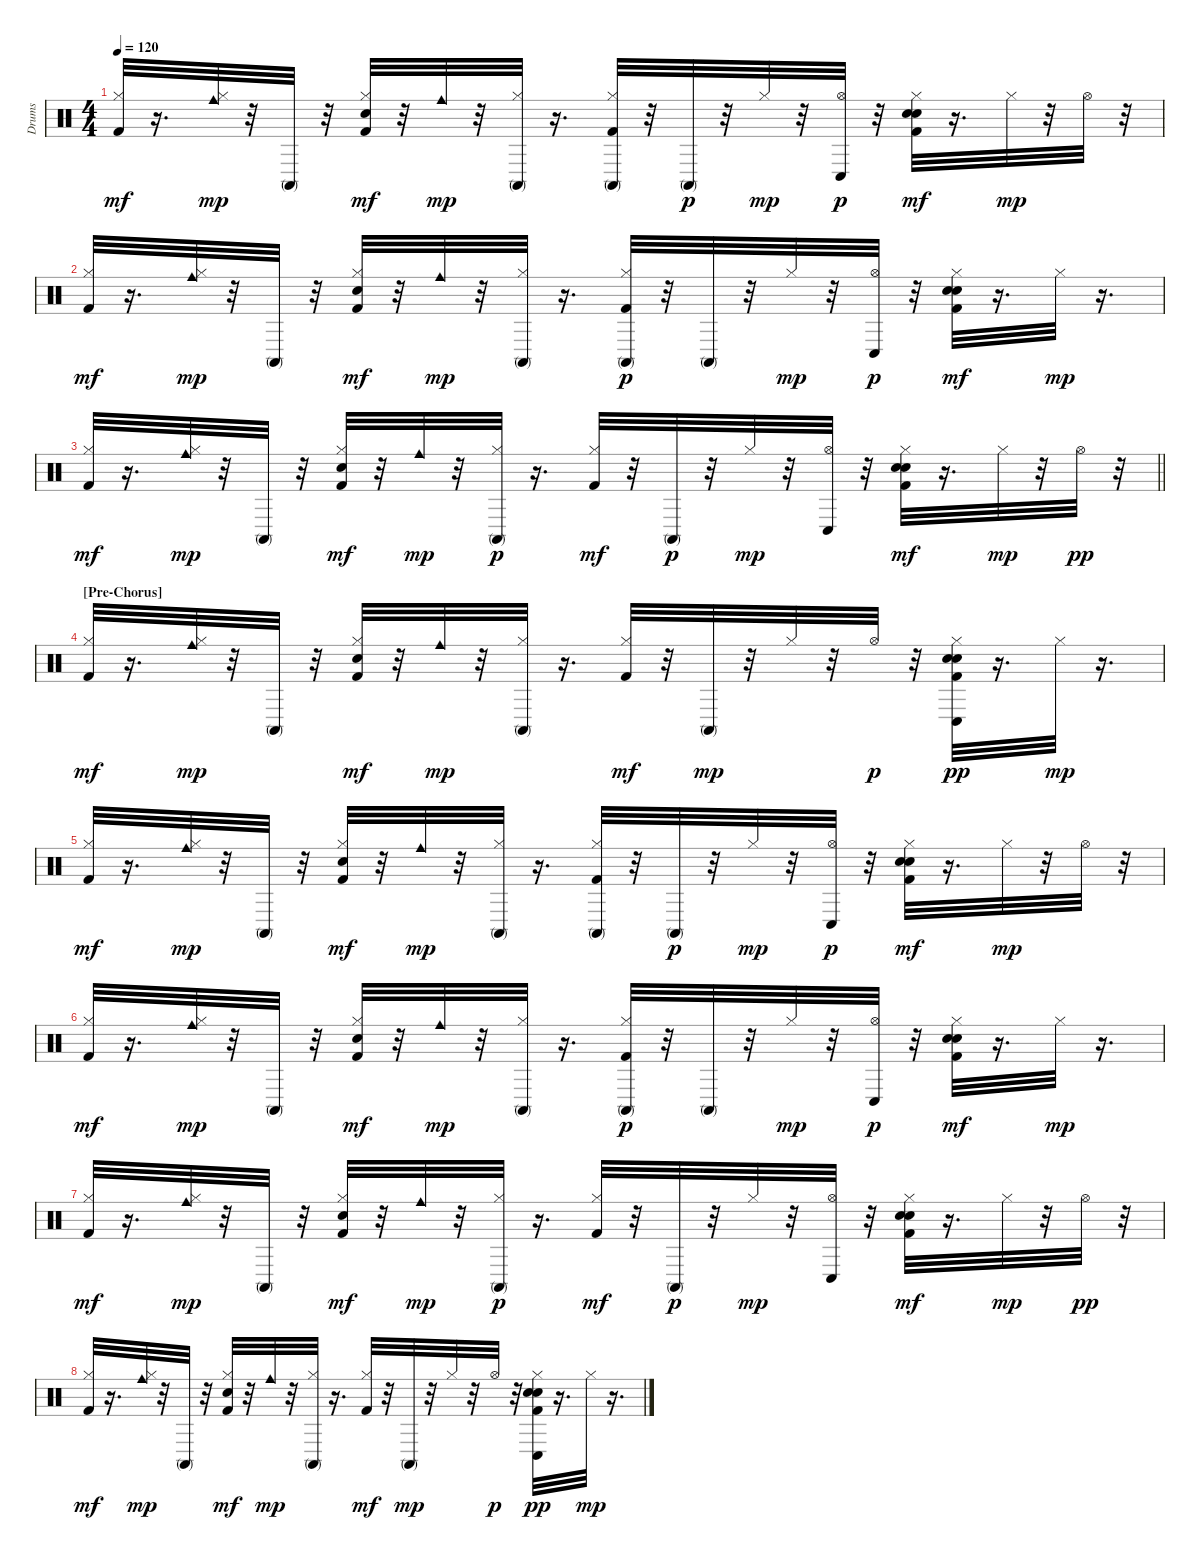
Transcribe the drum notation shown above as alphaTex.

\track ("Drums" "Drums") {instrument percussion}
\staff {score}
\articulation defaults
\ts (4 4)
\tempo 120
\clef neutral
\ks c
("Hi-Hat (closed)" "Kick (hit) 2").32{dy mf} r.16{d} ("Hi-Hat (closed)" "Cowbell medium (hit)").32{dy mp} r.32 "Conga high (mute)".32 r.32 ("Hi-Hat (closed)" "Electric Snare (hit)" "Kick (hit) 2").32{dy mf} r.32 "Cowbell medium (hit)".32{dy mp} r.32 ("Hi-Hat (closed)" "Conga high (mute)").32 r.16{d} ("Hi-Hat (closed)" "Kick (hit) 2" "Conga high (mute)").32 r.32 "Conga high (mute)".32{dy p} r.32 "Hi-Hat (closed)".32{dy mp} r.32 ("Hi-Hat (open)" "Conga low (hit)").32{dy p} r.32 ("Kick (hit) 2" "Hi-Hat (closed)" "Electric Snare (hit)" "Hand Clap (hit)").32{dy mf} r.16{d} "Hi-Hat (closed)".32{dy mp} r.32 "Hi-Hat (open)".32 r.32 |
("Hi-Hat (closed)" "Kick (hit) 2").32{dy mf} r.16{d} ("Hi-Hat (closed)" "Cowbell medium (hit)").32{dy mp} r.32 "Conga high (mute)".32 r.32 ("Hi-Hat (closed)" "Electric Snare (hit)" "Kick (hit) 2").32{dy mf} r.32 "Cowbell medium (hit)".32{dy mp} r.32 ("Hi-Hat (closed)" "Conga high (mute)").32 r.16{d} ("Kick (hit) 2" "Hi-Hat (closed)" "Conga high (mute)").32{dy p} r.32 "Conga high (mute)".32 r.32 "Hi-Hat (closed)".32{dy mp} r.32 ("Hi-Hat (open)" "Conga low (hit)").32{dy p} r.32 ("Hi-Hat (closed)" "Hand Clap (hit)" "Electric Snare (hit)" "Kick (hit) 2").32{dy mf} r.16{d} "Hi-Hat (closed)".32{dy mp} r.16{d} |
\barLineRight lightlight
("Hi-Hat (closed)" "Kick (hit) 2").32{dy mf} r.16{d} ("Hi-Hat (closed)" "Cowbell medium (hit)").32{dy mp} r.32 "Conga high (mute)".32 r.32 ("Hi-Hat (closed)" "Electric Snare (hit)" "Kick (hit) 2").32{dy mf} r.32 "Cowbell medium (hit)".32{dy mp} r.32 ("Hi-Hat (closed)" "Conga high (mute)").32{dy p} r.16{d} ("Hi-Hat (closed)" "Kick (hit) 2").32{dy mf} r.32 "Conga high (mute)".32{dy p} r.32 "Hi-Hat (closed)".32{dy mp} r.32 ("Hi-Hat (open)" "Conga low (hit)").32 r.32 ("Kick (hit) 2" "Hi-Hat (closed)" "Electric Snare (hit)" "Hand Clap (hit)").32{dy mf} r.16{d} "Hi-Hat (closed)".32{dy mp} r.32 "Hi-Hat (open)".32{dy pp} r.32 |
\section ("" "[Pre-Chorus]")
("Hi-Hat (closed)" "Kick (hit) 2").32{dy mf} r.16{d} ("Hi-Hat (closed)" "Cowbell medium (hit)").32{dy mp} r.32 "Conga high (mute)".32 r.32 ("Hi-Hat (closed)" "Electric Snare (hit)" "Kick (hit) 2").32{dy mf} r.32 "Cowbell medium (hit)".32{dy mp} r.32 ("Hi-Hat (closed)" "Conga high (mute)").32 r.16{d} ("Hi-Hat (closed)" "Kick (hit) 2").32{dy mf} r.32 "Conga high (mute)".32{dy mp} r.32 "Hi-Hat (closed)".32 r.32 "Hi-Hat (open)".32{dy p} r.32 ("Hi-Hat (closed)" "Kick (hit) 2" "Hand Clap (hit)" "Electric Snare (hit)" "Conga low (hit)").32{dy pp} r.16{d} "Hi-Hat (closed)".32{dy mp} r.16{d} |
("Hi-Hat (closed)" "Kick (hit) 2").32{dy mf} r.16{d} ("Hi-Hat (closed)" "Cowbell medium (hit)").32{dy mp} r.32 "Conga high (mute)".32 r.32 ("Hi-Hat (closed)" "Electric Snare (hit)" "Kick (hit) 2").32{dy mf} r.32 "Cowbell medium (hit)".32{dy mp} r.32 ("Hi-Hat (closed)" "Conga high (mute)").32 r.16{d} ("Hi-Hat (closed)" "Kick (hit) 2" "Conga high (mute)").32 r.32 "Conga high (mute)".32{dy p} r.32 "Hi-Hat (closed)".32{dy mp} r.32 ("Hi-Hat (open)" "Conga low (hit)").32{dy p} r.32 ("Kick (hit) 2" "Hi-Hat (closed)" "Electric Snare (hit)" "Hand Clap (hit)").32{dy mf} r.16{d} "Hi-Hat (closed)".32{dy mp} r.32 "Hi-Hat (open)".32 r.32 |
("Hi-Hat (closed)" "Kick (hit) 2").32{dy mf} r.16{d} ("Hi-Hat (closed)" "Cowbell medium (hit)").32{dy mp} r.32 "Conga high (mute)".32 r.32 ("Hi-Hat (closed)" "Electric Snare (hit)" "Kick (hit) 2").32{dy mf} r.32 "Cowbell medium (hit)".32{dy mp} r.32 ("Hi-Hat (closed)" "Conga high (mute)").32 r.16{d} ("Kick (hit) 2" "Hi-Hat (closed)" "Conga high (mute)").32{dy p} r.32 "Conga high (mute)".32 r.32 "Hi-Hat (closed)".32{dy mp} r.32 ("Hi-Hat (open)" "Conga low (hit)").32{dy p} r.32 ("Hi-Hat (closed)" "Hand Clap (hit)" "Electric Snare (hit)" "Kick (hit) 2").32{dy mf} r.16{d} "Hi-Hat (closed)".32{dy mp} r.16{d} |
("Hi-Hat (closed)" "Kick (hit) 2").32{dy mf} r.16{d} ("Hi-Hat (closed)" "Cowbell medium (hit)").32{dy mp} r.32 "Conga high (mute)".32 r.32 ("Hi-Hat (closed)" "Electric Snare (hit)" "Kick (hit) 2").32{dy mf} r.32 "Cowbell medium (hit)".32{dy mp} r.32 ("Hi-Hat (closed)" "Conga high (mute)").32{dy p} r.16{d} ("Hi-Hat (closed)" "Kick (hit) 2").32{dy mf} r.32 "Conga high (mute)".32{dy p} r.32 "Hi-Hat (closed)".32{dy mp} r.32 ("Hi-Hat (open)" "Conga low (hit)").32 r.32 ("Kick (hit) 2" "Hi-Hat (closed)" "Electric Snare (hit)" "Hand Clap (hit)").32{dy mf} r.16{d} "Hi-Hat (closed)".32{dy mp} r.32 "Hi-Hat (open)".32{dy pp} r.32 |
("Hi-Hat (closed)" "Kick (hit) 2").32{dy mf} r.16{d} ("Hi-Hat (closed)" "Cowbell medium (hit)").32{dy mp} r.32 "Conga high (mute)".32 r.32 ("Hi-Hat (closed)" "Electric Snare (hit)" "Kick (hit) 2").32{dy mf} r.32 "Cowbell medium (hit)".32{dy mp} r.32 ("Hi-Hat (closed)" "Conga high (mute)").32 r.16{d} ("Hi-Hat (closed)" "Kick (hit) 2").32{dy mf} r.32 "Conga high (mute)".32{dy mp} r.32 "Hi-Hat (closed)".32 r.32 "Hi-Hat (open)".32{dy p} r.32 ("Hi-Hat (closed)" "Kick (hit) 2" "Hand Clap (hit)" "Electric Snare (hit)" "Conga low (hit)").32{dy pp} r.16{d} "Hi-Hat (closed)".32{dy mp} r.16{d}
